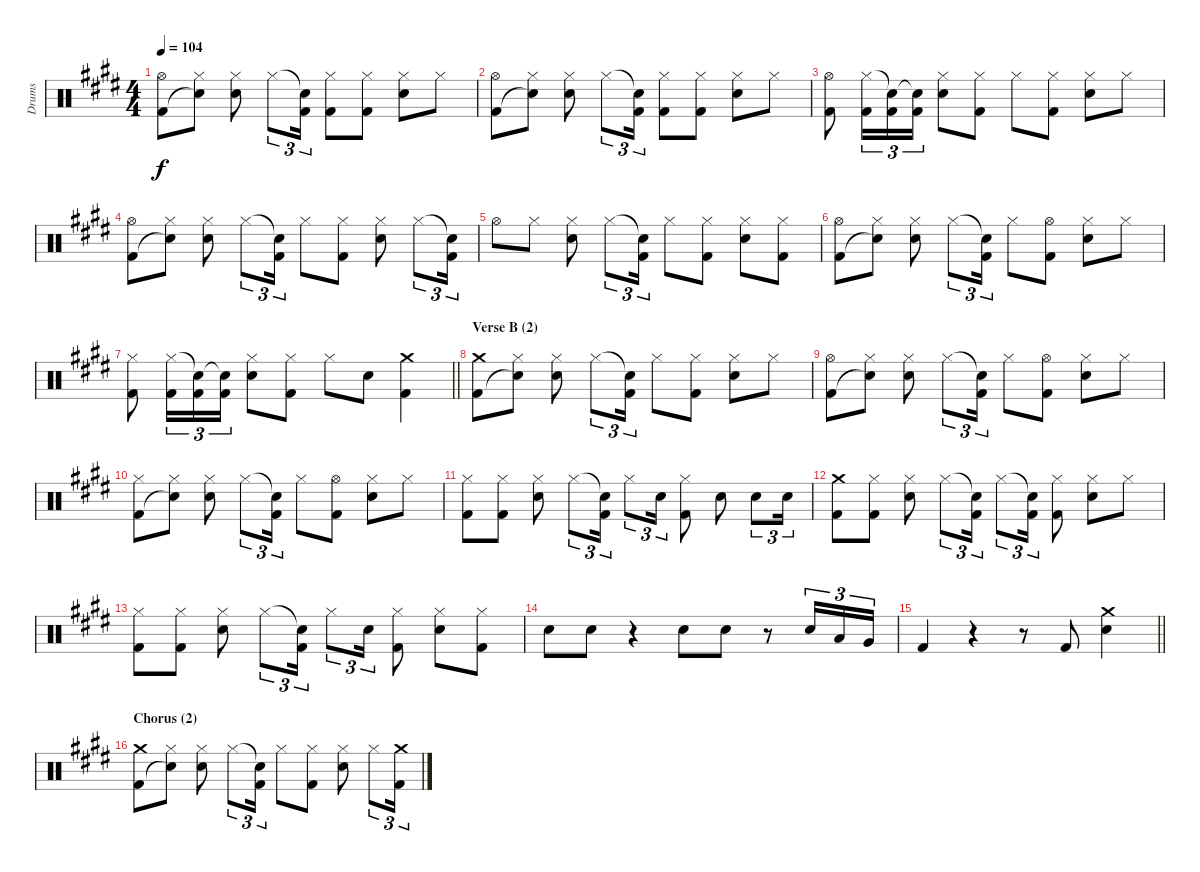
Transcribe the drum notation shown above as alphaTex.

\track ("Drums" "Drums") {instrument percussion}
\staff {score}
\articulation defaults
\ts (4 4)
\tempo 104
\clef neutral
\ks c#minor
("Hi-Hat (open)" "Kick (hit) 2").8{dy f} ("Hi-Hat (closed)" "Snare (hit)"{t}).8 ("Hi-Hat (closed)" "Electric Snare (hit)").8 "Hi-Hat (closed)".8{tu (3 2)} ("Snare (hit)"{t} "Kick (hit) 2").16{tu (3 2)} ("Hi-Hat (closed)" "Kick (hit) 2").8 ("Hi-Hat (closed)" "Kick (hit) 2").8 ("Hi-Hat (closed)" "Electric Snare (hit)").8 "Hi-Hat (closed)".8 |
("Hi-Hat (open)" "Kick (hit) 2").8 ("Hi-Hat (closed)" "Snare (hit)"{t}).8 ("Hi-Hat (closed)" "Electric Snare (hit)").8 "Hi-Hat (closed)".8{tu (3 2)} ("Snare (hit)"{t} "Kick (hit) 2").16{tu (3 2)} ("Hi-Hat (closed)" "Kick (hit) 2").8 ("Hi-Hat (closed)" "Kick (hit) 2").8 ("Hi-Hat (closed)" "Electric Snare (hit)").8 "Hi-Hat (closed)".8 |
("Hi-Hat (open)" "Kick (hit) 2").8 ("Hi-Hat (closed)" "Kick (hit) 2").16{tu (3 2)} ("Snare (hit)"{t} "Kick (hit) 2").16{tu (3 2)} ("Snare (hit)"{t} "Kick (hit) 2").16{tu (3 2)} ("Hi-Hat (closed)" "Electric Snare (hit)").8 ("Hi-Hat (closed)" "Kick (hit) 2").8 "Hi-Hat (closed)".8 ("Hi-Hat (closed)" "Kick (hit) 2").8 ("Hi-Hat (closed)" "Electric Snare (hit)").8 "Hi-Hat (closed)".8 |
("Hi-Hat (open)" "Kick (hit) 2").8 ("Hi-Hat (closed)" "Snare (hit)"{t}).8 ("Hi-Hat (closed)" "Electric Snare (hit)").8 "Hi-Hat (closed)".8{tu (3 2)} ("Snare (hit)"{t} "Kick (hit) 2").16{tu (3 2)} "Hi-Hat (closed)".8 ("Hi-Hat (closed)" "Kick (hit) 2").8 ("Hi-Hat (closed)" "Electric Snare (hit)").8 "Hi-Hat (closed)".8{tu (3 2)} ("Snare (hit)"{t} "Kick (hit) 2").16{tu (3 2)} |
"Hi-Hat (open)".8 "Hi-Hat (closed)".8 ("Hi-Hat (closed)" "Electric Snare (hit)").8 "Hi-Hat (closed)".8{tu (3 2)} ("Snare (hit)"{t} "Kick (hit) 2").16{tu (3 2)} "Hi-Hat (closed)".8 ("Hi-Hat (closed)" "Kick (hit) 2").8 ("Hi-Hat (closed)" "Electric Snare (hit)").8 ("Hi-Hat (closed)" "Kick (hit) 2").8 |
("Hi-Hat (open)" "Kick (hit) 2").8 ("Hi-Hat (closed)" "Snare (hit)"{t}).8 ("Hi-Hat (closed)" "Electric Snare (hit)").8 "Hi-Hat (closed)".8{tu (3 2)} ("Snare (hit)"{t} "Kick (hit) 2").16{tu (3 2)} "Hi-Hat (closed)".8 ("Hi-Hat (open)" "Kick (hit) 2").8 ("Hi-Hat (closed)" "Electric Snare (hit)").8 "Hi-Hat (closed)".8 |
\barLineRight lightlight
("Hi-Hat (closed)" "Kick (hit) 2").8 ("Hi-Hat (closed)" "Kick (hit) 2").16{tu (3 2)} ("Snare (hit)"{t} "Kick (hit) 2").16{tu (3 2)} ("Snare (hit)"{t} "Kick (hit) 2").16{tu (3 2)} ("Hi-Hat (closed)" "Electric Snare (hit)").8 ("Hi-Hat (closed)" "Kick (hit) 2").8 "Hi-Hat (closed)".8 "Electric Snare (hit)".8 ("Crash medium (hit)" "Kick (hit) 2").4 |
\section ("" "Verse B (2)")
("Crash medium (hit)" "Kick (hit) 2").8 ("Hi-Hat (closed)" "Snare (hit)"{t}).8 ("Hi-Hat (closed)" "Electric Snare (hit)").8 "Hi-Hat (closed)".8{tu (3 2)} ("Snare (hit)"{t} "Kick (hit) 2").16{tu (3 2)} "Hi-Hat (closed)".8 ("Hi-Hat (closed)" "Kick (hit) 2").8 ("Hi-Hat (closed)" "Electric Snare (hit)").8 "Hi-Hat (closed)".8 |
("Hi-Hat (open)" "Kick (hit) 2").8 ("Hi-Hat (closed)" "Snare (hit)"{t}).8 ("Hi-Hat (closed)" "Electric Snare (hit)").8 "Hi-Hat (closed)".8{tu (3 2)} ("Snare (hit)"{t} "Kick (hit) 2").16{tu (3 2)} "Hi-Hat (closed)".8 ("Hi-Hat (open)" "Kick (hit) 2").8 ("Hi-Hat (closed)" "Electric Snare (hit)").8 "Hi-Hat (closed)".8 |
("Hi-Hat (closed)" "Kick (hit) 2").8 ("Hi-Hat (closed)" "Snare (hit)"{t}).8 ("Hi-Hat (closed)" "Electric Snare (hit)").8 "Hi-Hat (closed)".8{tu (3 2)} ("Snare (hit)"{t} "Kick (hit) 2").16{tu (3 2)} "Hi-Hat (closed)".8 ("Hi-Hat (open)" "Kick (hit) 2").8 ("Hi-Hat (closed)" "Electric Snare (hit)").8 "Hi-Hat (closed)".8 |
("Hi-Hat (closed)" "Kick (hit) 2").8 ("Hi-Hat (closed)" "Kick (hit) 2").8 ("Hi-Hat (closed)" "Electric Snare (hit)").8 "Hi-Hat (closed)".8{tu (3 2)} ("Snare (hit)"{t} "Kick (hit) 2").16{tu (3 2)} "Hi-Hat (closed)".8{tu (3 2)} "Electric Snare (hit)".16{tu (3 2)} ("Hi-Hat (closed)" "Kick (hit) 2").8 "Electric Snare (hit)".8 "Electric Snare (hit)".8{tu (3 2)} "Electric Snare (hit)".16{tu (3 2)} |
("Crash medium (hit)" "Kick (hit) 2").8 ("Hi-Hat (closed)" "Kick (hit) 2").8 ("Hi-Hat (closed)" "Electric Snare (hit)").8 "Hi-Hat (closed)".8{tu (3 2)} ("Snare (hit)"{t} "Kick (hit) 2").16{tu (3 2)} "Hi-Hat (closed)".8{tu (3 2)} ("Snare (hit)"{t} "Kick (hit) 2").16{tu (3 2)} ("Hi-Hat (closed)" "Kick (hit) 2").8 ("Hi-Hat (closed)" "Electric Snare (hit)").8 "Hi-Hat (closed)".8 |
("Hi-Hat (closed)" "Kick (hit) 2").8 ("Hi-Hat (closed)" "Kick (hit) 2").8 ("Hi-Hat (closed)" "Electric Snare (hit)").8 "Hi-Hat (closed)".8{tu (3 2)} ("Snare (hit)"{t} "Kick (hit) 2").16{tu (3 2)} "Hi-Hat (closed)".8{tu (3 2)} "Electric Snare (hit)".16{tu (3 2)} ("Hi-Hat (closed)" "Kick (hit) 2").8 ("Hi-Hat (closed)" "Electric Snare (hit)").8 ("Hi-Hat (closed)" "Kick (hit) 2").8 |
"Electric Snare (hit)".8 "Electric Snare (hit)".8 r.4 "Electric Snare (hit)".8 "Electric Snare (hit)".8 r.8 "Electric Snare (hit)".16{tu (3 2)} "Low Tom (hit)".16{tu (3 2)} "Very Low Tom (hit)".16{tu (3 2)} |
\barLineRight lightlight "Kick (hit) 2".4
r.4 r.8 "Kick (hit) 2".8 ("Crash medium (hit)" "Electric Snare (hit)").4 |
\section ("" "Chorus (2)")
("Crash medium (hit)" "Kick (hit) 2").8 ("Hi-Hat (closed)" "Snare (hit)"{t}).8 ("Hi-Hat (closed)" "Electric Snare (hit)").8 "Hi-Hat (closed)".8{tu (3 2)} ("Snare (hit)"{t} "Kick (hit) 2").16{tu (3 2)} "Hi-Hat (closed)".8 ("Hi-Hat (closed)" "Kick (hit) 2").8 ("Hi-Hat (closed)" "Electric Snare (hit)").8 "Hi-Hat (closed)".8{tu (3 2)} ("Crash medium (hit)" "Kick (hit) 2").16{tu (3 2)}
